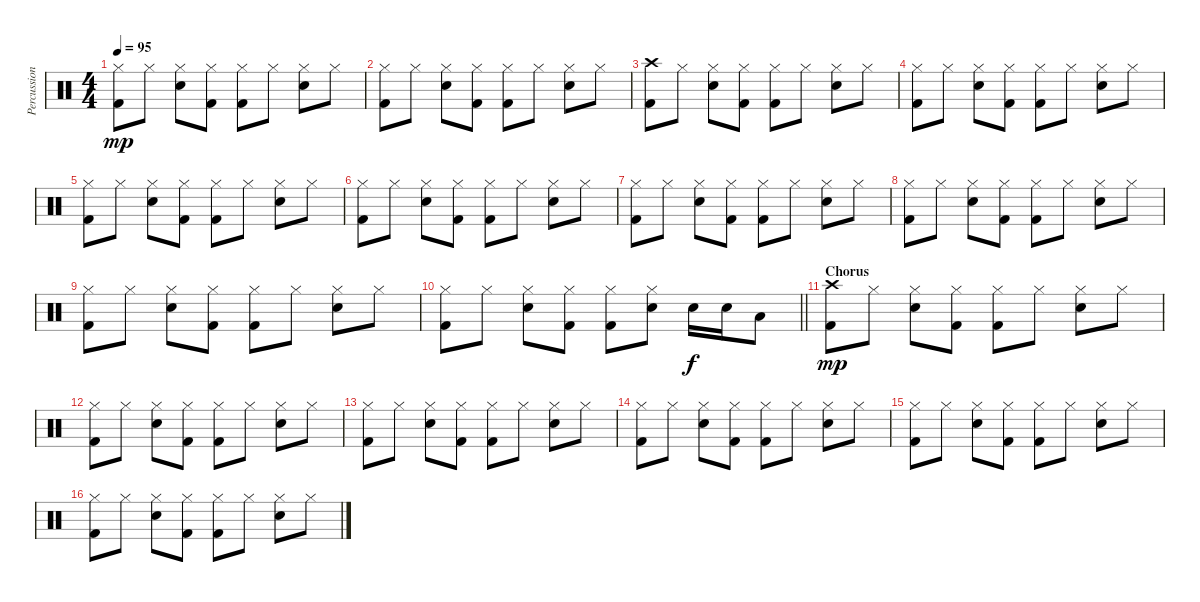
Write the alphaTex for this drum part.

\track ("Percussioni" "Percussion") {instrument percussion}
\staff {score}
\articulation defaults
\ts (4 4)
\tempo 95
\clef neutral
\ks c
("Hi-Hat (closed)" "Kick (hit) 2").8{dy mp} "Hi-Hat (closed)".8 ("Hi-Hat (closed)" "Snare (hit) 2").8 ("Hi-Hat (closed)" "Kick (hit) 2").8 ("Hi-Hat (closed)" "Kick (hit) 2").8 "Hi-Hat (closed)".8 ("Hi-Hat (closed)" "Snare (hit) 2").8 "Hi-Hat (closed)".8 |
("Hi-Hat (closed)" "Kick (hit) 2").8 "Hi-Hat (closed)".8 ("Hi-Hat (closed)" "Snare (hit) 2").8 ("Hi-Hat (closed)" "Kick (hit) 2").8 ("Hi-Hat (closed)" "Kick (hit) 2").8 "Hi-Hat (closed)".8 ("Hi-Hat (closed)" "Snare (hit) 2").8 "Hi-Hat (closed)".8 |
("Crash high (hit)" "Kick (hit) 2").8 "Hi-Hat (closed)".8 ("Hi-Hat (closed)" "Snare (hit) 2").8 ("Hi-Hat (closed)" "Kick (hit) 2").8 ("Hi-Hat (closed)" "Kick (hit) 2").8 "Hi-Hat (closed)".8 ("Hi-Hat (closed)" "Snare (hit) 2").8 "Hi-Hat (closed)".8 |
("Hi-Hat (closed)" "Kick (hit) 2").8 "Hi-Hat (closed)".8 ("Hi-Hat (closed)" "Snare (hit) 2").8 ("Hi-Hat (closed)" "Kick (hit) 2").8 ("Hi-Hat (closed)" "Kick (hit) 2").8 "Hi-Hat (closed)".8 ("Hi-Hat (closed)" "Snare (hit) 2").8 "Hi-Hat (closed)".8 |
("Hi-Hat (closed)" "Kick (hit) 2").8 "Hi-Hat (closed)".8 ("Hi-Hat (closed)" "Snare (hit) 2").8 ("Hi-Hat (closed)" "Kick (hit) 2").8 ("Hi-Hat (closed)" "Kick (hit) 2").8 "Hi-Hat (closed)".8 ("Hi-Hat (closed)" "Snare (hit) 2").8 "Hi-Hat (closed)".8 |
("Hi-Hat (closed)" "Kick (hit) 2").8 "Hi-Hat (closed)".8 ("Hi-Hat (closed)" "Snare (hit) 2").8 ("Hi-Hat (closed)" "Kick (hit) 2").8 ("Hi-Hat (closed)" "Kick (hit) 2").8 "Hi-Hat (closed)".8 ("Hi-Hat (closed)" "Snare (hit) 2").8 "Hi-Hat (closed)".8 |
("Hi-Hat (closed)" "Kick (hit) 2").8 "Hi-Hat (closed)".8 ("Hi-Hat (closed)" "Snare (hit) 2").8 ("Hi-Hat (closed)" "Kick (hit) 2").8 ("Hi-Hat (closed)" "Kick (hit) 2").8 "Hi-Hat (closed)".8 ("Hi-Hat (closed)" "Snare (hit) 2").8 "Hi-Hat (closed)".8 |
("Hi-Hat (closed)" "Kick (hit) 2").8 "Hi-Hat (closed)".8 ("Hi-Hat (closed)" "Snare (hit) 2").8 ("Hi-Hat (closed)" "Kick (hit) 2").8 ("Hi-Hat (closed)" "Kick (hit) 2").8 "Hi-Hat (closed)".8 ("Hi-Hat (closed)" "Snare (hit) 2").8 "Hi-Hat (closed)".8 |
("Hi-Hat (closed)" "Kick (hit) 2").8 "Hi-Hat (closed)".8 ("Hi-Hat (closed)" "Snare (hit) 2").8 ("Hi-Hat (closed)" "Kick (hit) 2").8 ("Hi-Hat (closed)" "Kick (hit) 2").8 "Hi-Hat (closed)".8 ("Hi-Hat (closed)" "Snare (hit) 2").8 "Hi-Hat (closed)".8 |
\barLineRight lightlight
("Hi-Hat (closed)" "Kick (hit) 2").8 "Hi-Hat (closed)".8 ("Hi-Hat (closed)" "Snare (hit) 2").8 ("Hi-Hat (closed)" "Kick (hit) 2").8 ("Hi-Hat (closed)" "Kick (hit) 2").8 ("Hi-Hat (closed)" "Snare (hit) 2").8 "Snare (hit) 2".16{dy f} "Snare (hit) 2".16 "Low Tom (hit)".8 |
\section ("" "Chorus")
("Crash high (hit)" "Kick (hit) 2").8{dy mp} "Hi-Hat (closed)".8 ("Hi-Hat (closed)" "Snare (hit) 2").8 ("Hi-Hat (closed)" "Kick (hit) 2").8 ("Hi-Hat (closed)" "Kick (hit) 2").8 "Hi-Hat (closed)".8 ("Hi-Hat (closed)" "Snare (hit) 2").8 "Hi-Hat (closed)".8 |
("Hi-Hat (closed)" "Kick (hit) 2").8 "Hi-Hat (closed)".8 ("Hi-Hat (closed)" "Snare (hit) 2").8 ("Hi-Hat (closed)" "Kick (hit) 2").8 ("Hi-Hat (closed)" "Kick (hit) 2").8 "Hi-Hat (closed)".8 ("Hi-Hat (closed)" "Snare (hit) 2").8 "Hi-Hat (closed)".8 |
("Hi-Hat (closed)" "Kick (hit) 2").8 "Hi-Hat (closed)".8 ("Hi-Hat (closed)" "Snare (hit) 2").8 ("Hi-Hat (closed)" "Kick (hit) 2").8 ("Hi-Hat (closed)" "Kick (hit) 2").8 "Hi-Hat (closed)".8 ("Hi-Hat (closed)" "Snare (hit) 2").8 "Hi-Hat (closed)".8 |
("Hi-Hat (closed)" "Kick (hit) 2").8 "Hi-Hat (closed)".8 ("Hi-Hat (closed)" "Snare (hit) 2").8 ("Hi-Hat (closed)" "Kick (hit) 2").8 ("Hi-Hat (closed)" "Kick (hit) 2").8 "Hi-Hat (closed)".8 ("Hi-Hat (closed)" "Snare (hit) 2").8 "Hi-Hat (closed)".8 |
("Hi-Hat (closed)" "Kick (hit) 2").8 "Hi-Hat (closed)".8 ("Hi-Hat (closed)" "Snare (hit) 2").8 ("Hi-Hat (closed)" "Kick (hit) 2").8 ("Hi-Hat (closed)" "Kick (hit) 2").8 "Hi-Hat (closed)".8 ("Hi-Hat (closed)" "Snare (hit) 2").8 "Hi-Hat (closed)".8 |
("Hi-Hat (closed)" "Kick (hit) 2").8 "Hi-Hat (closed)".8 ("Hi-Hat (closed)" "Snare (hit) 2").8 ("Hi-Hat (closed)" "Kick (hit) 2").8 ("Hi-Hat (closed)" "Kick (hit) 2").8 "Hi-Hat (closed)".8 ("Hi-Hat (closed)" "Snare (hit) 2").8 "Hi-Hat (closed)".8
